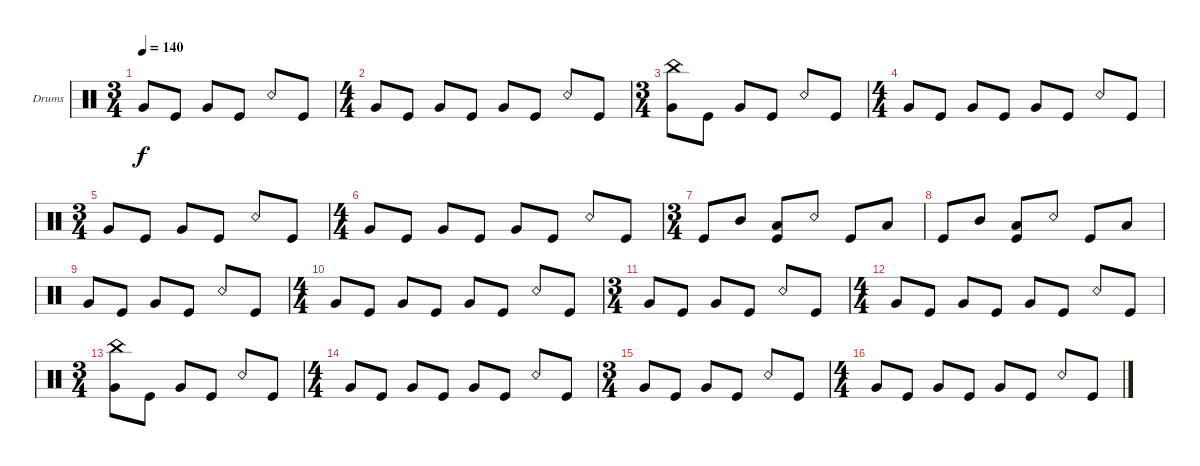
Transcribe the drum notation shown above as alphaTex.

\defaultSystemsLayout 4
\bracketExtendMode groupsimilarinstruments
\firstSystemTrackNameOrientation horizontal
\otherSystemsTrackNameOrientation horizontal
\track ("Drumkit" "Drums") {instrument percussion}
\staff {score}
\articulation defaults
\ts (3 4)
\tempo 140
\clef neutral
\ks c "Very Low Tom (hit)".8{dy f} "Kick (hit)".8 "Very Low Tom (hit)".8 "Kick (hit)".8 "Snare (rim shot)".8 "Kick (hit)".8
|
\ts (4 4)
"Very Low Tom (hit)".8 "Kick (hit)".8 "Very Low Tom (hit)".8 "Kick (hit)".8 "Very Low Tom (hit)".8 "Kick (hit)".8 "Snare (rim shot)".8 "Kick (hit)".8 |
\ts (3 4)
("Very Low Tom (hit)" "China (hit)").8 "Kick (hit)".8 "Very Low Tom (hit)".8 "Kick (hit)".8 "Snare (rim shot)".8 "Kick (hit)".8 |
\ts (4 4)
"Very Low Tom (hit)".8 "Kick (hit)".8 "Very Low Tom (hit)".8 "Kick (hit)".8 "Very Low Tom (hit)".8 "Kick (hit)".8 "Snare (rim shot)".8 "Kick (hit)".8 |
\ts (3 4)
"Very Low Tom (hit)".8 "Kick (hit)".8 "Very Low Tom (hit)".8 "Kick (hit)".8 "Snare (rim shot)".8 "Kick (hit)".8 |
\ts (4 4)
"Very Low Tom (hit)".8 "Kick (hit)".8 "Very Low Tom (hit)".8 "Kick (hit)".8 "Very Low Tom (hit)".8 "Kick (hit)".8 "Snare (rim shot)".8 "Kick (hit)".8 |
\ts (3 4)
"Kick (hit)".8 "Mid Tom (hit)".8 ("Kick (hit)" "Low Tom (hit)").8 "Snare (rim shot)".8 "Kick (hit)".8 "Low Tom (hit)".8 |
"Kick (hit)".8 "Mid Tom (hit)".8 ("Kick (hit)" "Low Tom (hit)").8 "Snare (rim shot)".8 "Kick (hit)".8 "Low Tom (hit)".8 |
"Very Low Tom (hit)".8 "Kick (hit)".8 "Very Low Tom (hit)".8 "Kick (hit)".8 "Snare (rim shot)".8 "Kick (hit)".8 |
\ts (4 4)
"Very Low Tom (hit)".8 "Kick (hit)".8 "Very Low Tom (hit)".8 "Kick (hit)".8 "Very Low Tom (hit)".8 "Kick (hit)".8 "Snare (rim shot)".8 "Kick (hit)".8 |
\ts (3 4)
"Very Low Tom (hit)".8 "Kick (hit)".8 "Very Low Tom (hit)".8 "Kick (hit)".8 "Snare (rim shot)".8 "Kick (hit)".8 |
\ts (4 4)
"Very Low Tom (hit)".8 "Kick (hit)".8 "Very Low Tom (hit)".8 "Kick (hit)".8 "Very Low Tom (hit)".8 "Kick (hit)".8 "Snare (rim shot)".8 "Kick (hit)".8 |
\ts (3 4)
("Very Low Tom (hit)" "China (hit)").8 "Kick (hit)".8 "Very Low Tom (hit)".8 "Kick (hit)".8 "Snare (rim shot)".8 "Kick (hit)".8 |
\ts (4 4)
"Very Low Tom (hit)".8 "Kick (hit)".8 "Very Low Tom (hit)".8 "Kick (hit)".8 "Very Low Tom (hit)".8 "Kick (hit)".8 "Snare (rim shot)".8 "Kick (hit)".8 |
\ts (3 4)
"Very Low Tom (hit)".8 "Kick (hit)".8 "Very Low Tom (hit)".8 "Kick (hit)".8 "Snare (rim shot)".8 "Kick (hit)".8 |
\ts (4 4)
"Very Low Tom (hit)".8 "Kick (hit)".8 "Very Low Tom (hit)".8 "Kick (hit)".8 "Very Low Tom (hit)".8 "Kick (hit)".8 "Snare (rim shot)".8 "Kick (hit)".8
